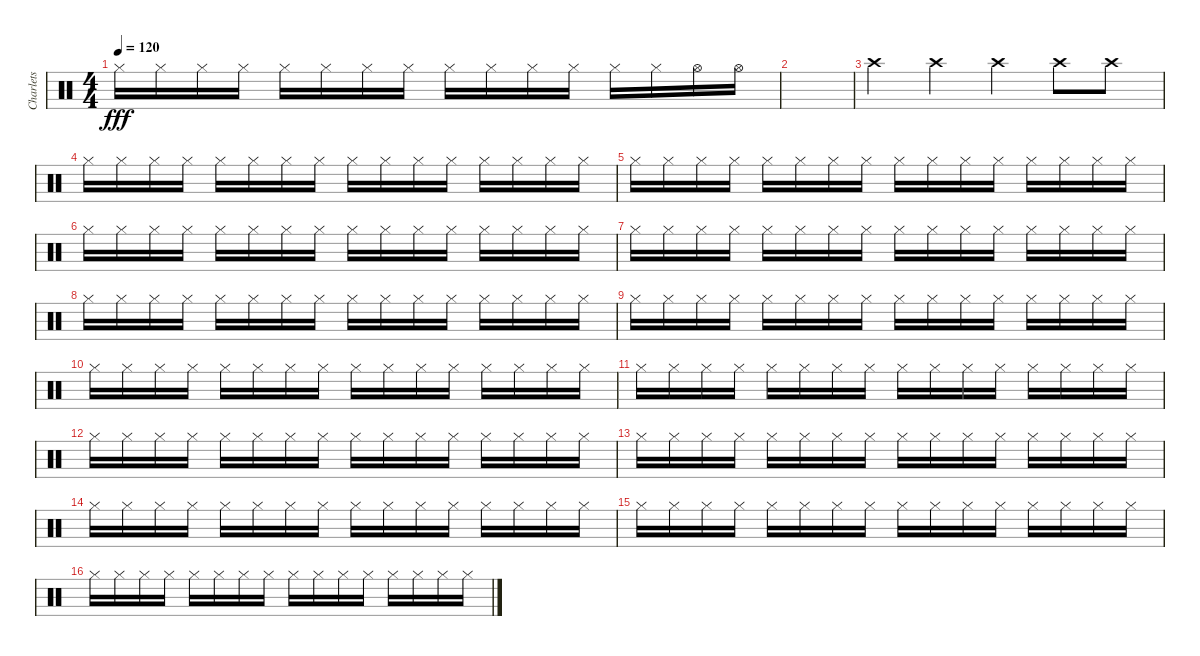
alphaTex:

\track ("Charlets" "Charlets") {instrument percussion}
\staff {score}
\articulation defaults
\ts (4 4)
\tempo 120
\clef neutral
\ks c "Hi-Hat (closed)".16{dy fff} "Hi-Hat (closed)".16 "Hi-Hat (closed)".16 "Hi-Hat (closed)".16 "Hi-Hat (closed)".16 "Hi-Hat (closed)".16 "Hi-Hat (closed)".16 "Hi-Hat (closed)".16 "Hi-Hat (closed)".16 "Hi-Hat (closed)".16 "Hi-Hat (closed)".16 "Hi-Hat (closed)".16 "Hi-Hat (closed)".16 "Hi-Hat (closed)".16 "Hi-Hat (open)".16 "Hi-Hat (open)".16
|
|
"Crash high (hit)".4 "Crash high (hit)".4 "Crash high (hit)".4 "Crash high (hit)".8 "Crash high (hit)".8 |
"Hi-Hat (closed)".16 "Hi-Hat (closed)".16 "Hi-Hat (closed)".16 "Hi-Hat (closed)".16 "Hi-Hat (closed)".16 "Hi-Hat (closed)".16 "Hi-Hat (closed)".16 "Hi-Hat (closed)".16 "Hi-Hat (closed)".16 "Hi-Hat (closed)".16 "Hi-Hat (closed)".16 "Hi-Hat (closed)".16 "Hi-Hat (closed)".16 "Hi-Hat (closed)".16 "Hi-Hat (closed)".16 "Hi-Hat (closed)".16 |
"Hi-Hat (closed)".16 "Hi-Hat (closed)".16 "Hi-Hat (closed)".16 "Hi-Hat (closed)".16 "Hi-Hat (closed)".16 "Hi-Hat (closed)".16 "Hi-Hat (closed)".16 "Hi-Hat (closed)".16 "Hi-Hat (closed)".16 "Hi-Hat (closed)".16 "Hi-Hat (closed)".16 "Hi-Hat (closed)".16 "Hi-Hat (closed)".16 "Hi-Hat (closed)".16 "Hi-Hat (closed)".16 "Hi-Hat (closed)".16 |
"Hi-Hat (closed)".16 "Hi-Hat (closed)".16 "Hi-Hat (closed)".16 "Hi-Hat (closed)".16 "Hi-Hat (closed)".16 "Hi-Hat (closed)".16 "Hi-Hat (closed)".16 "Hi-Hat (closed)".16 "Hi-Hat (closed)".16 "Hi-Hat (closed)".16 "Hi-Hat (closed)".16 "Hi-Hat (closed)".16 "Hi-Hat (closed)".16 "Hi-Hat (closed)".16 "Hi-Hat (closed)".16 "Hi-Hat (closed)".16 |
"Hi-Hat (closed)".16 "Hi-Hat (closed)".16 "Hi-Hat (closed)".16 "Hi-Hat (closed)".16 "Hi-Hat (closed)".16 "Hi-Hat (closed)".16 "Hi-Hat (closed)".16 "Hi-Hat (closed)".16 "Hi-Hat (closed)".16 "Hi-Hat (closed)".16 "Hi-Hat (closed)".16 "Hi-Hat (closed)".16 "Hi-Hat (closed)".16 "Hi-Hat (closed)".16 "Hi-Hat (closed)".16 "Hi-Hat (closed)".16 |
"Hi-Hat (closed)".16 "Hi-Hat (closed)".16 "Hi-Hat (closed)".16 "Hi-Hat (closed)".16 "Hi-Hat (closed)".16 "Hi-Hat (closed)".16 "Hi-Hat (closed)".16 "Hi-Hat (closed)".16 "Hi-Hat (closed)".16 "Hi-Hat (closed)".16 "Hi-Hat (closed)".16 "Hi-Hat (closed)".16 "Hi-Hat (closed)".16 "Hi-Hat (closed)".16 "Hi-Hat (closed)".16 "Hi-Hat (closed)".16 |
"Hi-Hat (closed)".16 "Hi-Hat (closed)".16 "Hi-Hat (closed)".16 "Hi-Hat (closed)".16 "Hi-Hat (closed)".16 "Hi-Hat (closed)".16 "Hi-Hat (closed)".16 "Hi-Hat (closed)".16 "Hi-Hat (closed)".16 "Hi-Hat (closed)".16 "Hi-Hat (closed)".16 "Hi-Hat (closed)".16 "Hi-Hat (closed)".16 "Hi-Hat (closed)".16 "Hi-Hat (closed)".16 "Hi-Hat (closed)".16 |
"Hi-Hat (closed)".16 "Hi-Hat (closed)".16 "Hi-Hat (closed)".16 "Hi-Hat (closed)".16 "Hi-Hat (closed)".16 "Hi-Hat (closed)".16 "Hi-Hat (closed)".16 "Hi-Hat (closed)".16 "Hi-Hat (closed)".16 "Hi-Hat (closed)".16 "Hi-Hat (closed)".16 "Hi-Hat (closed)".16 "Hi-Hat (closed)".16 "Hi-Hat (closed)".16 "Hi-Hat (closed)".16 "Hi-Hat (closed)".16 |
"Hi-Hat (closed)".16 "Hi-Hat (closed)".16 "Hi-Hat (closed)".16 "Hi-Hat (closed)".16 "Hi-Hat (closed)".16 "Hi-Hat (closed)".16 "Hi-Hat (closed)".16 "Hi-Hat (closed)".16 "Hi-Hat (closed)".16 "Hi-Hat (closed)".16 "Hi-Hat (closed)".16 "Hi-Hat (closed)".16 "Hi-Hat (closed)".16 "Hi-Hat (closed)".16 "Hi-Hat (closed)".16 "Hi-Hat (closed)".16 |
"Hi-Hat (closed)".16 "Hi-Hat (closed)".16 "Hi-Hat (closed)".16 "Hi-Hat (closed)".16 "Hi-Hat (closed)".16 "Hi-Hat (closed)".16 "Hi-Hat (closed)".16 "Hi-Hat (closed)".16 "Hi-Hat (closed)".16 "Hi-Hat (closed)".16 "Hi-Hat (closed)".16 "Hi-Hat (closed)".16 "Hi-Hat (closed)".16 "Hi-Hat (closed)".16 "Hi-Hat (closed)".16 "Hi-Hat (closed)".16 |
"Hi-Hat (closed)".16 "Hi-Hat (closed)".16 "Hi-Hat (closed)".16 "Hi-Hat (closed)".16 "Hi-Hat (closed)".16 "Hi-Hat (closed)".16 "Hi-Hat (closed)".16 "Hi-Hat (closed)".16 "Hi-Hat (closed)".16 "Hi-Hat (closed)".16 "Hi-Hat (closed)".16 "Hi-Hat (closed)".16 "Hi-Hat (closed)".16 "Hi-Hat (closed)".16 "Hi-Hat (closed)".16 "Hi-Hat (closed)".16 |
"Hi-Hat (closed)".16 "Hi-Hat (closed)".16 "Hi-Hat (closed)".16 "Hi-Hat (closed)".16 "Hi-Hat (closed)".16 "Hi-Hat (closed)".16 "Hi-Hat (closed)".16 "Hi-Hat (closed)".16 "Hi-Hat (closed)".16 "Hi-Hat (closed)".16 "Hi-Hat (closed)".16 "Hi-Hat (closed)".16 "Hi-Hat (closed)".16 "Hi-Hat (closed)".16 "Hi-Hat (closed)".16 "Hi-Hat (closed)".16 |
"Hi-Hat (closed)".16 "Hi-Hat (closed)".16 "Hi-Hat (closed)".16 "Hi-Hat (closed)".16 "Hi-Hat (closed)".16 "Hi-Hat (closed)".16 "Hi-Hat (closed)".16 "Hi-Hat (closed)".16 "Hi-Hat (closed)".16 "Hi-Hat (closed)".16 "Hi-Hat (closed)".16 "Hi-Hat (closed)".16 "Hi-Hat (closed)".16 "Hi-Hat (closed)".16 "Hi-Hat (closed)".16 "Hi-Hat (closed)".16 |
"Hi-Hat (closed)".16 "Hi-Hat (closed)".16 "Hi-Hat (closed)".16 "Hi-Hat (closed)".16 "Hi-Hat (closed)".16 "Hi-Hat (closed)".16 "Hi-Hat (closed)".16 "Hi-Hat (closed)".16 "Hi-Hat (closed)".16 "Hi-Hat (closed)".16 "Hi-Hat (closed)".16 "Hi-Hat (closed)".16 "Hi-Hat (closed)".16 "Hi-Hat (closed)".16 "Hi-Hat (closed)".16 "Hi-Hat (closed)".16
